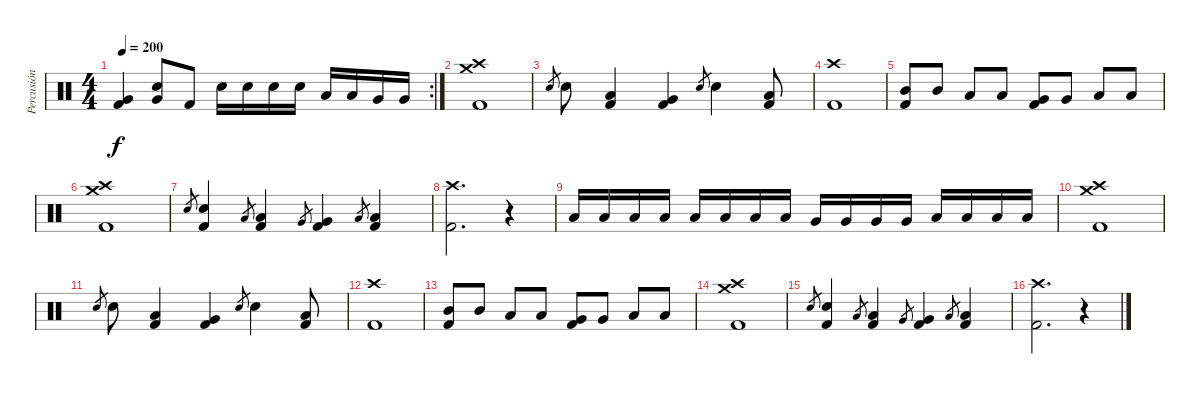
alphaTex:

\track ("Percusión" "Percusión") {instrument percussion}
\staff {score}
\articulation defaults
\rc 2
\ts (4 4)
\tempo 200
\clef neutral
\ks c
("Very Low Tom (hit)" "Kick (hit) 2").4{dy f} ("Very Low Tom (hit)" "Snare (hit) 2").8 "Kick (hit) 2".8 "Snare (hit) 2".16 "Snare (hit) 2".16 "Snare (hit) 2".16 "Snare (hit) 2".16 "Low Tom (hit)".16 "Low Tom (hit)".16 "Very Low Tom (hit)".16 "Very Low Tom (hit)".16 |
("Crash medium (hit)" "Kick (hit) 2" "Crash high (hit)").1 |
"Snare (hit) 2".8{gr} "Snare (hit) 2".8 ("Low Tom (hit)" "Kick (hit) 2").4 ("Very Low Tom (hit)" "Kick (hit) 2").4 "Snare (hit) 2".8{gr} "Snare (hit) 2".4 ("Low Floor Tom (hit)" "Kick (hit) 2").8 |
("Crash high (hit)" "Kick (hit) 2").1 |
("Kick (hit) 2" "Mid Tom (hit)").8 "Mid Tom (hit)".8 "Low Tom (hit)".8 "Low Tom (hit)".8 ("Kick (hit) 2" "Very Low Tom (hit)").8 "Very Low Tom (hit)".8 "Low Floor Tom (hit)".8 "Low Floor Tom (hit)".8 |
("Crash medium (hit)" "Crash high (hit)" "Kick (hit) 2").1 |
"Snare (hit) 2".8{gr} ("Kick (hit) 2" "Snare (hit) 2").4 "Low Tom (hit)".8{gr} ("Kick (hit) 2" "Low Tom (hit)").4 "Very Low Tom (hit)".8{gr} ("Kick (hit) 2" "Very Low Tom (hit)").4 "Low Floor Tom (hit)".8{gr} ("Kick (hit) 2" "Low Floor Tom (hit)").4 |
("Crash high (hit)" "Kick (hit) 2").2{d} r.4{volume 8} |
"Low Tom (hit)".16{volume 16} "Low Tom (hit)".16 "Low Tom (hit)".16 "Low Tom (hit)".16 "Low Tom (hit)".16 "Low Tom (hit)".16 "Low Tom (hit)".16 "Low Tom (hit)".16 "Very Low Tom (hit)".16 "Very Low Tom (hit)".16 "Very Low Tom (hit)".16 "Very Low Tom (hit)".16 "Low Floor Tom (hit)".16 "Low Floor Tom (hit)".16 "Low Floor Tom (hit)".16 "Low Floor Tom (hit)".16 |
("Crash medium (hit)" "Kick (hit) 2" "Crash high (hit)").1 |
"Snare (hit) 2".8{gr} "Snare (hit) 2".8 ("Low Tom (hit)" "Kick (hit) 2").4 ("Very Low Tom (hit)" "Kick (hit) 2").4 "Snare (hit) 2".8{gr} "Snare (hit) 2".4 ("Low Floor Tom (hit)" "Kick (hit) 2").8 |
("Crash high (hit)" "Kick (hit) 2").1 |
("Kick (hit) 2" "Mid Tom (hit)").8 "Mid Tom (hit)".8 "Low Tom (hit)".8 "Low Tom (hit)".8 ("Kick (hit) 2" "Very Low Tom (hit)").8 "Very Low Tom (hit)".8 "Low Floor Tom (hit)".8 "Low Floor Tom (hit)".8 |
("Crash medium (hit)" "Crash high (hit)" "Kick (hit) 2").1 |
"Snare (hit) 2".8{gr} ("Kick (hit) 2" "Snare (hit) 2").4 "Low Tom (hit)".8{gr} ("Kick (hit) 2" "Low Tom (hit)").4 "Very Low Tom (hit)".8{gr} ("Kick (hit) 2" "Very Low Tom (hit)").4 "Low Floor Tom (hit)".8{gr} ("Kick (hit) 2" "Low Floor Tom (hit)").4 |
("Crash high (hit)" "Kick (hit) 2").2{d} r.4{volume 8}
